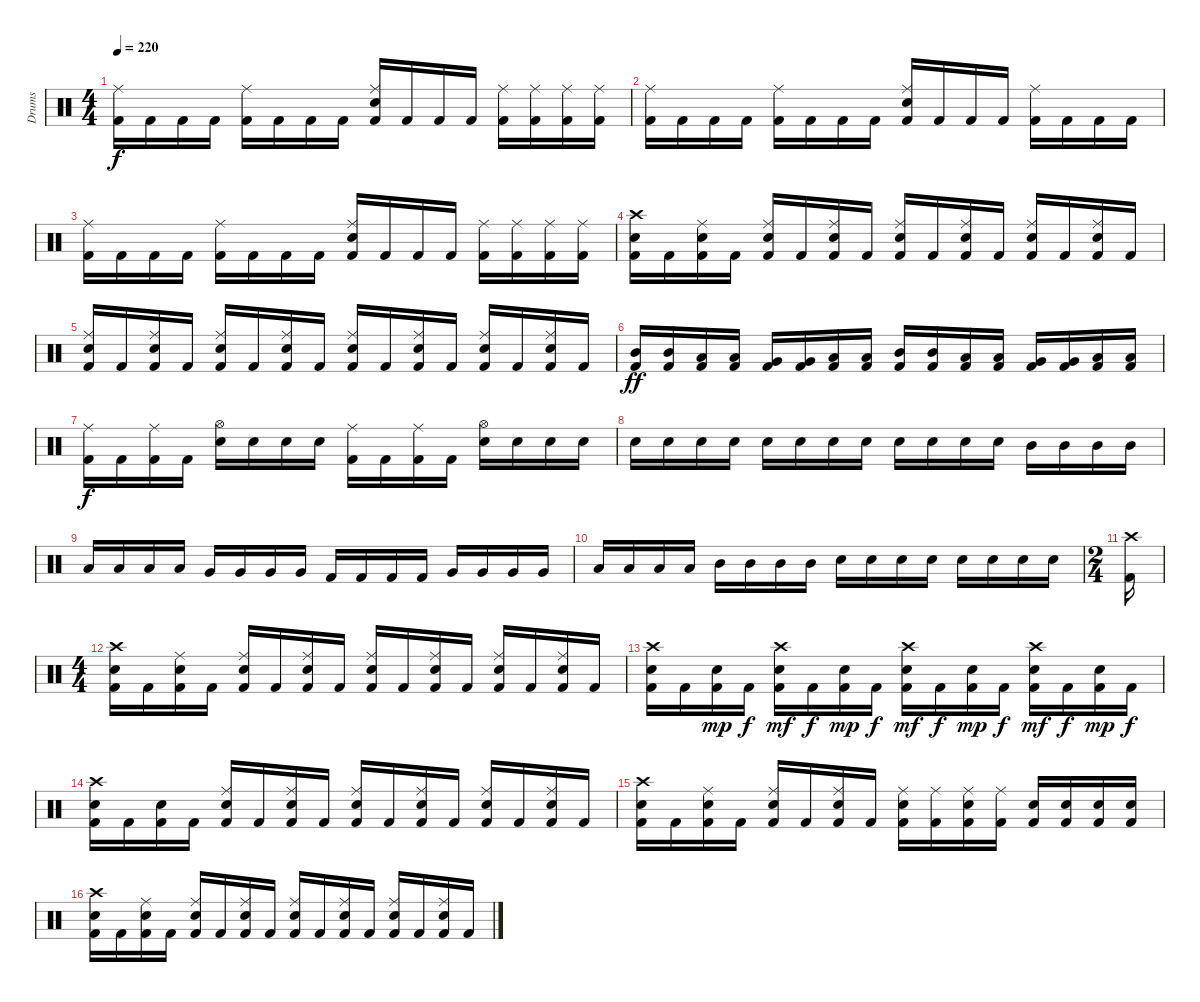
\track ("Drums" "Drums") {instrument percussion}
\staff {score}
\articulation defaults
\ts (4 4)
\tempo 220
\clef neutral
\ks c
("Kick (hit) 2" "Ride (middle)").16{dy f} "Kick (hit) 2".16 "Kick (hit) 2".16 "Kick (hit) 2".16 ("Kick (hit) 2" "Ride (middle)").16 "Kick (hit) 2".16 "Kick (hit) 2".16 "Kick (hit) 2".16 ("Kick (hit) 2" "Electric Snare (hit)" "Ride (middle)").16 "Kick (hit) 2".16 "Kick (hit) 2".16 "Kick (hit) 2".16 ("Kick (hit) 2" "Ride (middle)").16 ("Kick (hit) 2" "Ride (middle)").16 ("Kick (hit) 2" "Ride (middle)").16 ("Kick (hit) 2" "Ride (middle)").16 |
("Kick (hit) 2" "Ride (middle)").16 "Kick (hit) 2".16 "Kick (hit) 2".16 "Kick (hit) 2".16 ("Kick (hit) 2" "Ride (middle)").16 "Kick (hit) 2".16 "Kick (hit) 2".16 "Kick (hit) 2".16 ("Kick (hit) 2" "Electric Snare (hit)" "Ride (middle)").16 "Kick (hit) 2".16 "Kick (hit) 2".16 "Kick (hit) 2".16 ("Kick (hit) 2" "Ride (middle)").16 "Kick (hit) 2".16 "Kick (hit) 2".16 "Kick (hit) 2".16 |
("Kick (hit) 2" "Ride (middle)").16 "Kick (hit) 2".16 "Kick (hit) 2".16 "Kick (hit) 2".16 ("Kick (hit) 2" "Ride (middle)").16 "Kick (hit) 2".16 "Kick (hit) 2".16 "Kick (hit) 2".16 ("Kick (hit) 2" "Electric Snare (hit)" "Ride (middle)").16 "Kick (hit) 2".16 "Kick (hit) 2".16 "Kick (hit) 2".16 ("Kick (hit) 2" "Ride (middle)").16 ("Kick (hit) 2" "Ride (middle)").16 ("Kick (hit) 2" "Ride (middle)").16 ("Kick (hit) 2" "Ride (middle)").16 |
("Kick (hit) 2" "Electric Snare (hit)" "Crash high (hit)").16 "Kick (hit) 2".16 ("Kick (hit) 2" "Electric Snare (hit)" "Ride (middle)").16 "Kick (hit) 2".16 ("Kick (hit) 2" "Electric Snare (hit)" "Ride (middle)").16 "Kick (hit) 2".16 ("Kick (hit) 2" "Electric Snare (hit)" "Ride (middle)").16 "Kick (hit) 2".16 ("Kick (hit) 2" "Electric Snare (hit)" "Ride (middle)").16 "Kick (hit) 2".16 ("Kick (hit) 2" "Electric Snare (hit)" "Ride (middle)").16 "Kick (hit) 2".16 ("Kick (hit) 2" "Electric Snare (hit)" "Ride (middle)").16 "Kick (hit) 2".16 ("Kick (hit) 2" "Electric Snare (hit)" "Ride (middle)").16 "Kick (hit) 2".16 |
("Kick (hit) 2" "Electric Snare (hit)" "Ride (middle)").16 "Kick (hit) 2".16 ("Kick (hit) 2" "Electric Snare (hit)" "Ride (middle)").16 "Kick (hit) 2".16 ("Kick (hit) 2" "Electric Snare (hit)" "Ride (middle)").16 "Kick (hit) 2".16 ("Kick (hit) 2" "Electric Snare (hit)" "Ride (middle)").16 "Kick (hit) 2".16 ("Kick (hit) 2" "Electric Snare (hit)" "Ride (middle)").16 "Kick (hit) 2".16 ("Kick (hit) 2" "Electric Snare (hit)" "Ride (middle)").16 "Kick (hit) 2".16 ("Kick (hit) 2" "Electric Snare (hit)" "Ride (middle)").16 "Kick (hit) 2".16 ("Kick (hit) 2" "Electric Snare (hit)" "Ride (middle)").16 "Kick (hit) 2".16 |
("Kick (hit) 2" "Mid Tom (hit)").16{dy ff} ("Kick (hit) 2" "Mid Tom (hit)").16 ("Kick (hit) 2" "Low Tom (hit)").16 ("Kick (hit) 2" "Low Tom (hit)").16 ("Kick (hit) 2" "Very Low Tom (hit)").16 ("Kick (hit) 2" "Very Low Tom (hit)").16 ("Kick (hit) 2" "Low Floor Tom (hit)").16 ("Kick (hit) 2" "Low Floor Tom (hit)").16 ("Kick (hit) 2" "Mid Tom (hit)").16 ("Kick (hit) 2" "Mid Tom (hit)").16 ("Kick (hit) 2" "Low Tom (hit)").16 ("Kick (hit) 2" "Low Tom (hit)").16 ("Kick (hit) 2" "Very Low Tom (hit)").16 ("Kick (hit) 2" "Very Low Tom (hit)").16 ("Kick (hit) 2" "Low Floor Tom (hit)").16 ("Kick (hit) 2" "Low Floor Tom (hit)").16 |
("Kick (hit) 2" "Ride (middle)").16{dy f} "Kick (hit) 2".16 ("Kick (hit) 2" "Ride (middle)").16 "Kick (hit) 2".16 ("Electric Snare (hit)" "Hi-Hat (open)").16 "Electric Snare (hit)".16 "Electric Snare (hit)".16 "Electric Snare (hit)".16 ("Kick (hit) 2" "Ride (middle)").16 "Kick (hit) 2".16 ("Kick (hit) 2" "Ride (middle)").16 "Kick (hit) 2".16 ("Electric Snare (hit)" "Hi-Hat (open)").16 "Electric Snare (hit)".16 "Electric Snare (hit)".16 "Electric Snare (hit)".16 |
"Electric Snare (hit)".16 "Electric Snare (hit)".16 "Electric Snare (hit)".16 "Electric Snare (hit)".16 "Electric Snare (hit)".16 "Electric Snare (hit)".16 "Electric Snare (hit)".16 "Electric Snare (hit)".16 "Electric Snare (hit)".16 "Electric Snare (hit)".16 "Electric Snare (hit)".16 "Electric Snare (hit)".16 "Mid Tom (hit)".16 "Mid Tom (hit)".16 "Mid Tom (hit)".16 "Mid Tom (hit)".16 |
"Low Tom (hit)".16 "Low Tom (hit)".16 "Low Tom (hit)".16 "Low Tom (hit)".16 "Very Low Tom (hit)".16 "Very Low Tom (hit)".16 "Very Low Tom (hit)".16 "Very Low Tom (hit)".16 "Kick (hit) 2".16 "Kick (hit) 2".16 "Kick (hit) 2".16 "Kick (hit) 2".16 "Very Low Tom (hit)".16 "Very Low Tom (hit)".16 "Very Low Tom (hit)".16 "Very Low Tom (hit)".16 |
"Low Tom (hit)".16 "Low Tom (hit)".16 "Low Tom (hit)".16 "Low Tom (hit)".16 "Mid Tom (hit)".16 "Mid Tom (hit)".16 "Mid Tom (hit)".16 "Mid Tom (hit)".16 "Electric Snare (hit)".16 "Electric Snare (hit)".16 "Electric Snare (hit)".16 "Electric Snare (hit)".16 "Electric Snare (hit)".16 "Electric Snare (hit)".16 "Electric Snare (hit)".16 "Electric Snare (hit)".16 |
\ts (2 4)
("Kick (hit) 2" "Crash high (hit)").16 |
\ts (4 4)
("Kick (hit) 2" "Electric Snare (hit)" "Crash high (hit)").16 "Kick (hit) 2".16 ("Kick (hit) 2" "Electric Snare (hit)" "Ride (middle)").16 "Kick (hit) 2".16 ("Kick (hit) 2" "Electric Snare (hit)" "Ride (middle)").16 "Kick (hit) 2".16 ("Kick (hit) 2" "Electric Snare (hit)" "Ride (middle)").16 "Kick (hit) 2".16 ("Kick (hit) 2" "Electric Snare (hit)" "Ride (middle)").16 "Kick (hit) 2".16 ("Kick (hit) 2" "Electric Snare (hit)" "Ride (middle)").16 "Kick (hit) 2".16 ("Kick (hit) 2" "Electric Snare (hit)" "Ride (middle)").16 "Kick (hit) 2".16 ("Kick (hit) 2" "Electric Snare (hit)" "Ride (middle)").16 "Kick (hit) 2".16 |
("Kick (hit) 2" "Electric Snare (hit)" "Crash high (hit)").16 "Kick (hit) 2".16 ("Kick (hit) 2" "Electric Snare (hit)").16{dy mp} "Kick (hit) 2".16{dy f} ("Kick (hit) 2" "Electric Snare (hit)" "Crash high (hit)").16{dy mf} "Kick (hit) 2".16{dy f} ("Kick (hit) 2" "Electric Snare (hit)").16{dy mp} "Kick (hit) 2".16{dy f} ("Kick (hit) 2" "Electric Snare (hit)" "Crash high (hit)").16{dy mf} "Kick (hit) 2".16{dy f} ("Kick (hit) 2" "Electric Snare (hit)").16{dy mp} "Kick (hit) 2".16{dy f} ("Kick (hit) 2" "Electric Snare (hit)" "Crash high (hit)").16{dy mf} "Kick (hit) 2".16{dy f} ("Kick (hit) 2" "Electric Snare (hit)").16{dy mp} "Kick (hit) 2".16{dy f} |
("Kick (hit) 2" "Electric Snare (hit)" "Crash high (hit)").16 "Kick (hit) 2".16 ("Kick (hit) 2" "Electric Snare (hit)").16 "Kick (hit) 2".16 ("Kick (hit) 2" "Electric Snare (hit)" "Ride (middle)").16 "Kick (hit) 2".16 ("Kick (hit) 2" "Electric Snare (hit)" "Ride (middle)").16 "Kick (hit) 2".16 ("Kick (hit) 2" "Electric Snare (hit)" "Ride (middle)").16 "Kick (hit) 2".16 ("Kick (hit) 2" "Electric Snare (hit)" "Ride (middle)").16 "Kick (hit) 2".16 ("Kick (hit) 2" "Electric Snare (hit)" "Ride (middle)").16 "Kick (hit) 2".16 ("Kick (hit) 2" "Electric Snare (hit)" "Ride (middle)").16 "Kick (hit) 2".16 |
("Kick (hit) 2" "Electric Snare (hit)" "Crash high (hit)").16 "Kick (hit) 2".16 ("Kick (hit) 2" "Electric Snare (hit)" "Ride (middle)").16 "Kick (hit) 2".16 ("Kick (hit) 2" "Electric Snare (hit)" "Ride (middle)").16 "Kick (hit) 2".16 ("Kick (hit) 2" "Electric Snare (hit)" "Ride (middle)").16 "Kick (hit) 2".16 ("Kick (hit) 2" "Electric Snare (hit)" "Ride (middle)").16 ("Kick (hit) 2" "Ride (middle)").16 ("Kick (hit) 2" "Electric Snare (hit)" "Ride (middle)").16 ("Kick (hit) 2" "Ride (middle)").16 ("Kick (hit) 2" "Electric Snare (hit)").16 ("Kick (hit) 2" "Electric Snare (hit)").16 ("Kick (hit) 2" "Electric Snare (hit)").16 ("Kick (hit) 2" "Electric Snare (hit)").16 |
("Kick (hit) 2" "Electric Snare (hit)" "Crash high (hit)").16 "Kick (hit) 2".16 ("Kick (hit) 2" "Electric Snare (hit)" "Ride (middle)").16 "Kick (hit) 2".16 ("Kick (hit) 2" "Electric Snare (hit)" "Ride (middle)").16 "Kick (hit) 2".16 ("Kick (hit) 2" "Electric Snare (hit)" "Ride (middle)").16 "Kick (hit) 2".16 ("Kick (hit) 2" "Electric Snare (hit)" "Ride (middle)").16 "Kick (hit) 2".16 ("Kick (hit) 2" "Electric Snare (hit)" "Ride (middle)").16 "Kick (hit) 2".16 ("Kick (hit) 2" "Electric Snare (hit)" "Ride (middle)").16 "Kick (hit) 2".16 ("Kick (hit) 2" "Electric Snare (hit)" "Ride (middle)").16 "Kick (hit) 2".16
